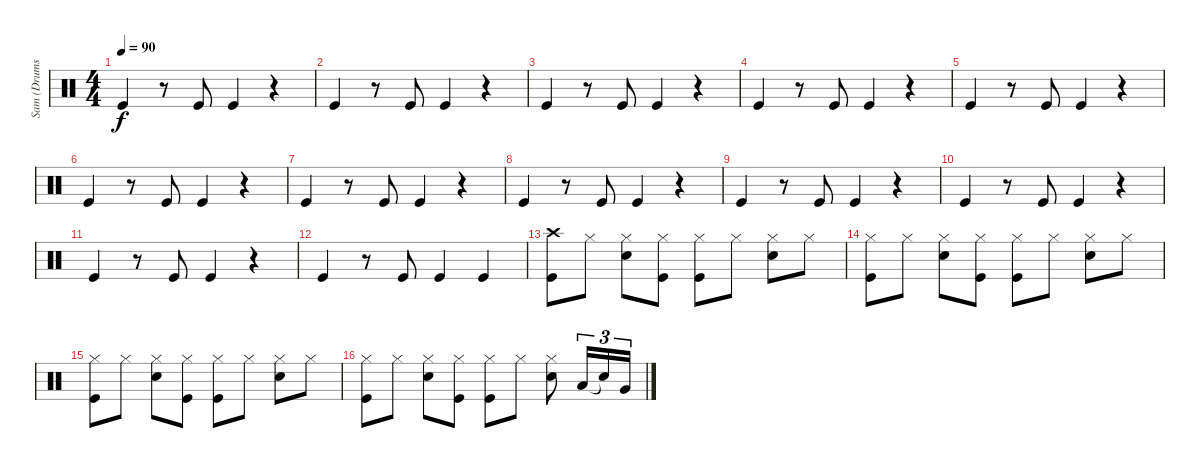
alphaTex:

\track ("Sam (Drums)" "Sam (Drums") {instrument percussion}
\staff {score}
\articulation defaults
\ts (4 4)
\tempo 90
\clef neutral
\ks c "Kick (hit)".4{dy f}
r.8 "Kick (hit)".8 "Kick (hit)".4 r.4 |
"Kick (hit)".4 r.8 "Kick (hit)".8 "Kick (hit)".4 r.4 |
"Kick (hit)".4 r.8 "Kick (hit)".8 "Kick (hit)".4 r.4 |
"Kick (hit)".4 r.8 "Kick (hit)".8 "Kick (hit)".4 r.4 |
"Kick (hit)".4 r.8 "Kick (hit)".8 "Kick (hit)".4 r.4 |
"Kick (hit)".4 r.8 "Kick (hit)".8 "Kick (hit)".4 r.4 |
"Kick (hit)".4 r.8 "Kick (hit)".8 "Kick (hit)".4 r.4 |
"Kick (hit)".4 r.8 "Kick (hit)".8 "Kick (hit)".4 r.4 |
"Kick (hit)".4 r.8 "Kick (hit)".8 "Kick (hit)".4 r.4 |
"Kick (hit)".4 r.8 "Kick (hit)".8 "Kick (hit)".4 r.4 |
"Kick (hit)".4 r.8 "Kick (hit)".8 "Kick (hit)".4 r.4 |
"Kick (hit)".4 r.8 "Kick (hit)".8 "Kick (hit)".4 "Kick (hit)".4 |
("Crash high (hit)" "Kick (hit)").8 "Hi-Hat (closed)".8 ("Hi-Hat (closed)" "Snare (hit) 2").8 ("Hi-Hat (closed)" "Kick (hit)").8 ("Hi-Hat (closed)" "Kick (hit)").8 "Hi-Hat (closed)".8 ("Hi-Hat (closed)" "Snare (hit) 2").8 "Hi-Hat (closed)".8 |
("Hi-Hat (closed)" "Kick (hit)").8 "Hi-Hat (closed)".8 ("Hi-Hat (closed)" "Snare (hit) 2").8 ("Hi-Hat (closed)" "Kick (hit)").8 ("Hi-Hat (closed)" "Kick (hit)").8 "Hi-Hat (closed)".8 ("Hi-Hat (closed)" "Snare (hit) 2").8 "Hi-Hat (closed)".8 |
("Hi-Hat (closed)" "Kick (hit)").8 "Hi-Hat (closed)".8 ("Hi-Hat (closed)" "Snare (hit) 2").8 ("Hi-Hat (closed)" "Kick (hit)").8 ("Hi-Hat (closed)" "Kick (hit)").8 "Hi-Hat (closed)".8 ("Hi-Hat (closed)" "Snare (hit) 2").8 "Hi-Hat (closed)".8 |
("Hi-Hat (closed)" "Kick (hit)").8 "Hi-Hat (closed)".8 ("Hi-Hat (closed)" "Snare (hit) 2").8 ("Hi-Hat (closed)" "Kick (hit)").8 ("Hi-Hat (closed)" "Kick (hit)").8 "Hi-Hat (closed)".8 ("Hi-Hat (closed)" "Snare (hit) 2").8 "Low Tom (hit)".16{tu (3 2)} "Snare (hit)"{t}.16{tu (3 2)} "Very Low Tom (hit)".16{tu (3 2)}
